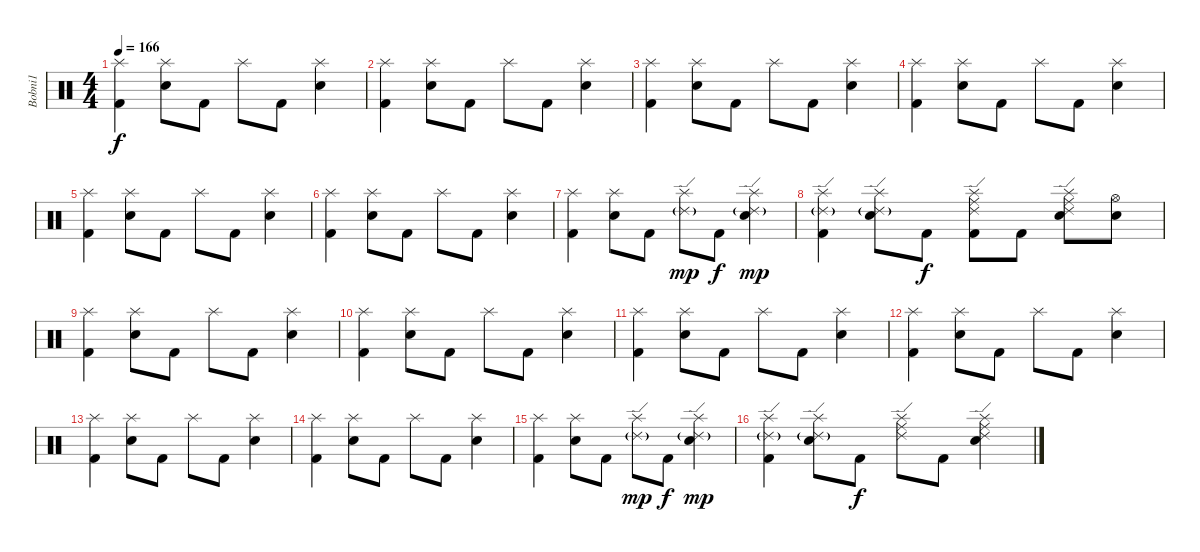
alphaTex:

\track ("Bobni1" "Bobni1") {instrument percussion}
\staff {score}
\articulation defaults
\ts (4 4)
\tempo 166
\clef neutral
\ks c
("Splash (hit)" "Kick (hit) 2").4{dy f} ("Splash (hit)" "Snare (hit) 2").8 "Kick (hit) 2".8 "Splash (hit)".8 "Kick (hit) 2".8 ("Splash (hit)" "Snare (hit) 2").4 |
("Splash (hit)" "Kick (hit) 2").4 ("Splash (hit)" "Snare (hit) 2").8 "Kick (hit) 2".8 "Splash (hit)".8 "Kick (hit) 2".8 ("Splash (hit)" "Snare (hit) 2").4 |
("Splash (hit)" "Kick (hit) 2").4 ("Splash (hit)" "Snare (hit) 2").8 "Kick (hit) 2".8 "Splash (hit)".8 "Kick (hit) 2".8 ("Splash (hit)" "Snare (hit) 2").4 |
("Splash (hit)" "Kick (hit) 2").4 ("Splash (hit)" "Snare (hit) 2").8 "Kick (hit) 2".8 "Splash (hit)".8 "Kick (hit) 2".8 ("Splash (hit)" "Snare (hit) 2").4 |
("Splash (hit)" "Kick (hit) 2").4 ("Splash (hit)" "Snare (hit) 2").8 "Kick (hit) 2".8 "Splash (hit)".8 "Kick (hit) 2".8 ("Splash (hit)" "Snare (hit) 2").4 |
("Splash (hit)" "Kick (hit) 2").4 ("Splash (hit)" "Snare (hit) 2").8 "Kick (hit) 2".8 "Splash (hit)".8 "Kick (hit) 2".8 ("Splash (hit)" "Snare (hit) 2").4 |
("Splash (hit)" "Kick (hit) 2").4 ("Splash (hit)" "Snare (hit) 2").8 "Kick (hit) 2".8 ("Splash (hit)" "Ride (edge) 2"{g}).8{dy mp} "Kick (hit) 2".8{dy f} ("Splash (hit)" "Ride (edge) 2"{g} "Snare (hit) 2").4{dy mp} |
("Splash (hit)" "Ride (edge) 2"{g} "Kick (hit) 2").4 ("Splash (hit)" "Ride (edge) 2"{g} "Snare (hit) 2").8 "Kick (hit) 2".8{dy f} ("Splash (hit)" "Ride (edge) 2" "Ride (middle)" "Kick (hit) 2").8 "Kick (hit) 2".8 ("Splash (hit)" "Ride (edge) 2" "Ride (middle)" "Snare (hit) 2").8 ("Hi-Hat (open)" "Snare (hit) 2").8 |
("Splash (hit)" "Kick (hit) 2").4 ("Splash (hit)" "Snare (hit) 2").8 "Kick (hit) 2".8 "Splash (hit)".8 "Kick (hit) 2".8 ("Splash (hit)" "Snare (hit) 2").4 |
("Splash (hit)" "Kick (hit) 2").4 ("Splash (hit)" "Snare (hit) 2").8 "Kick (hit) 2".8 "Splash (hit)".8 "Kick (hit) 2".8 ("Splash (hit)" "Snare (hit) 2").4 |
("Splash (hit)" "Kick (hit) 2").4 ("Splash (hit)" "Snare (hit) 2").8 "Kick (hit) 2".8 "Splash (hit)".8 "Kick (hit) 2".8 ("Splash (hit)" "Snare (hit) 2").4 |
("Splash (hit)" "Kick (hit) 2").4 ("Splash (hit)" "Snare (hit) 2").8 "Kick (hit) 2".8 "Splash (hit)".8 "Kick (hit) 2".8 ("Splash (hit)" "Snare (hit) 2").4 |
("Splash (hit)" "Kick (hit) 2").4 ("Splash (hit)" "Snare (hit) 2").8 "Kick (hit) 2".8 "Splash (hit)".8 "Kick (hit) 2".8 ("Splash (hit)" "Snare (hit) 2").4 |
("Splash (hit)" "Kick (hit) 2").4 ("Splash (hit)" "Snare (hit) 2").8 "Kick (hit) 2".8 "Splash (hit)".8 "Kick (hit) 2".8 ("Splash (hit)" "Snare (hit) 2").4 |
("Splash (hit)" "Kick (hit) 2").4 ("Splash (hit)" "Snare (hit) 2").8 "Kick (hit) 2".8 ("Splash (hit)" "Ride (edge) 2"{g}).8{dy mp} "Kick (hit) 2".8{dy f} ("Splash (hit)" "Ride (edge) 2"{g} "Snare (hit) 2").4{dy mp} |
("Splash (hit)" "Ride (edge) 2"{g} "Kick (hit) 2").4 ("Splash (hit)" "Ride (edge) 2"{g} "Snare (hit) 2").8 "Kick (hit) 2".8{dy f} ("Splash (hit)" "Ride (edge) 2" "Ride (middle)").8 "Kick (hit) 2".8 ("Splash (hit)" "Ride (edge) 2" "Ride (middle)" "Snare (hit) 2").4
